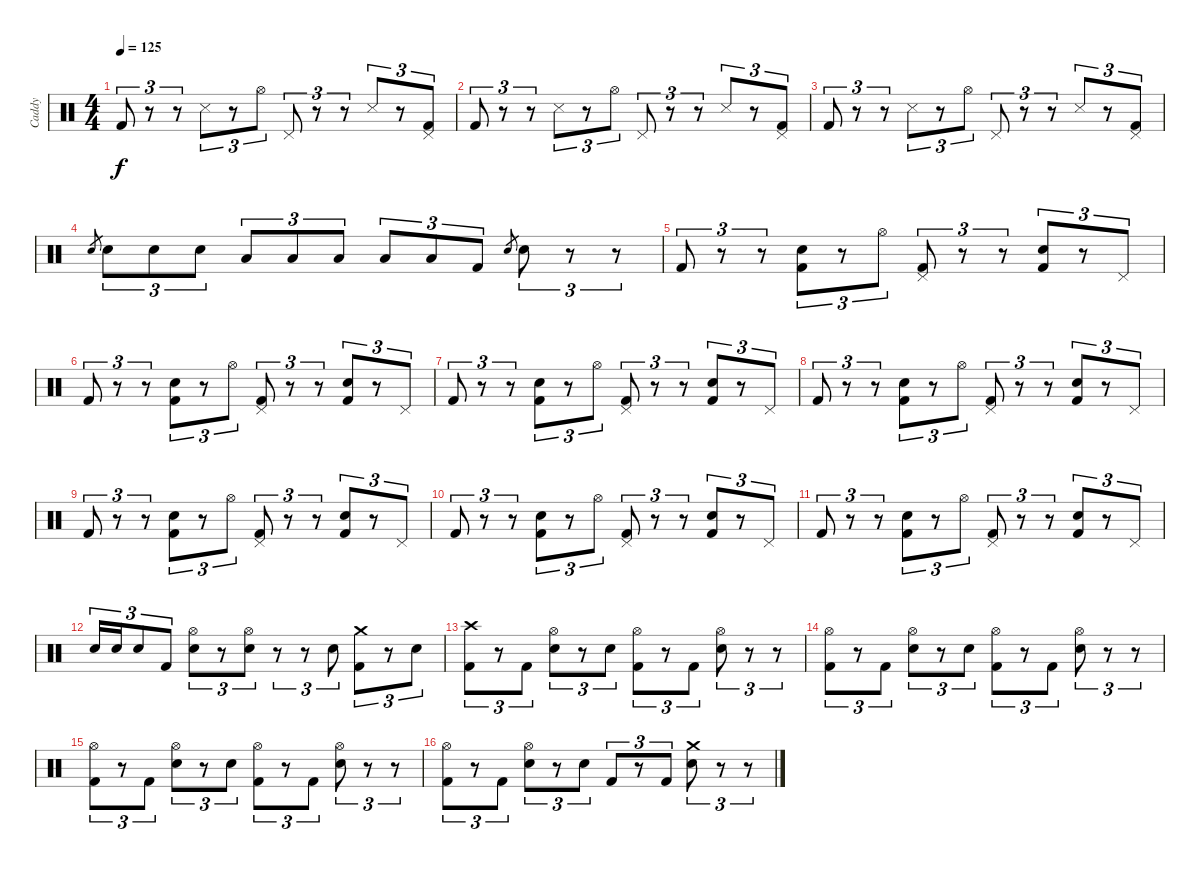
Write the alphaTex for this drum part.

\track ("Caddy" "Caddy") {instrument percussion}
\staff {score}
\articulation defaults
\ts (4 4)
\tempo 125
\clef neutral
\ks c "Kick (hit) 2".8{tu (3 2) dy f}
r.8{tu (3 2)} r.8{tu (3 2)} "Snare (side stick) 3".8{tu (3 2)} r.8{tu (3 2)} "Hi-Hat (open)".8{tu (3 2)} "Pedal Hi-Hat (hit)".8{tu (3 2)} r.8{tu (3 2)} r.8{tu (3 2)} "Snare (side stick) 3".8{tu (3 2)} r.8{tu (3 2)} ("Pedal Hi-Hat (hit)" "Kick (hit) 2").8{tu (3 2)} |
"Kick (hit) 2".8{tu (3 2)} r.8{tu (3 2)} r.8{tu (3 2)} "Snare (side stick) 3".8{tu (3 2)} r.8{tu (3 2)} "Hi-Hat (open)".8{tu (3 2)} "Pedal Hi-Hat (hit)".8{tu (3 2)} r.8{tu (3 2)} r.8{tu (3 2)} "Snare (side stick) 3".8{tu (3 2)} r.8{tu (3 2)} ("Pedal Hi-Hat (hit)" "Kick (hit) 2").8{tu (3 2)} |
"Kick (hit) 2".8{tu (3 2)} r.8{tu (3 2)} r.8{tu (3 2)} "Snare (side stick) 3".8{tu (3 2)} r.8{tu (3 2)} "Hi-Hat (open)".8{tu (3 2)} "Pedal Hi-Hat (hit)".8{tu (3 2)} r.8{tu (3 2)} r.8{tu (3 2)} "Snare (side stick) 3".8{tu (3 2)} r.8{tu (3 2)} ("Pedal Hi-Hat (hit)" "Kick (hit) 2").8{tu (3 2)} |
"Electric Snare (hit)".8{gr} "Electric Snare (hit)".8{tu (3 2)} "Electric Snare (hit)".8{tu (3 2)} "Electric Snare (hit)".8{tu (3 2)} "Low Tom (hit)".8{tu (3 2)} "Low Tom (hit)".8{tu (3 2)} "Low Tom (hit)".8{tu (3 2)} "Low Floor Tom (hit)".8{tu (3 2)} "Low Floor Tom (hit)".8{tu (3 2)} "Kick (hit) 2".8{tu (3 2)} "Electric Snare (hit)".8{gr} "Electric Snare (hit)".8{tu (3 2)} r.8{tu (3 2)} r.8{tu (3 2)} |
"Kick (hit) 2".8{tu (3 2)} r.8{tu (3 2)} r.8{tu (3 2)} ("Electric Snare (hit)" "Kick (hit) 2").8{tu (3 2)} r.8{tu (3 2)} "Hi-Hat (open)".8{tu (3 2)} ("Pedal Hi-Hat (hit)" "Kick (hit) 2").8{tu (3 2)} r.8{tu (3 2)} r.8{tu (3 2)} ("Electric Snare (hit)" "Kick (hit) 2").8{tu (3 2)} r.8{tu (3 2)} "Pedal Hi-Hat (hit)".8{tu (3 2)} |
"Kick (hit) 2".8{tu (3 2)} r.8{tu (3 2)} r.8{tu (3 2)} ("Electric Snare (hit)" "Kick (hit) 2").8{tu (3 2)} r.8{tu (3 2)} "Hi-Hat (open)".8{tu (3 2)} ("Pedal Hi-Hat (hit)" "Kick (hit) 2").8{tu (3 2)} r.8{tu (3 2)} r.8{tu (3 2)} ("Electric Snare (hit)" "Kick (hit) 2").8{tu (3 2)} r.8{tu (3 2)} "Pedal Hi-Hat (hit)".8{tu (3 2)} |
"Kick (hit) 2".8{tu (3 2)} r.8{tu (3 2)} r.8{tu (3 2)} ("Electric Snare (hit)" "Kick (hit) 2").8{tu (3 2)} r.8{tu (3 2)} "Hi-Hat (open)".8{tu (3 2)} ("Pedal Hi-Hat (hit)" "Kick (hit) 2").8{tu (3 2)} r.8{tu (3 2)} r.8{tu (3 2)} ("Electric Snare (hit)" "Kick (hit) 2").8{tu (3 2)} r.8{tu (3 2)} "Pedal Hi-Hat (hit)".8{tu (3 2)} |
"Kick (hit) 2".8{tu (3 2)} r.8{tu (3 2)} r.8{tu (3 2)} ("Electric Snare (hit)" "Kick (hit) 2").8{tu (3 2)} r.8{tu (3 2)} "Hi-Hat (open)".8{tu (3 2)} ("Pedal Hi-Hat (hit)" "Kick (hit) 2").8{tu (3 2)} r.8{tu (3 2)} r.8{tu (3 2)} ("Electric Snare (hit)" "Kick (hit) 2").8{tu (3 2)} r.8{tu (3 2)} "Pedal Hi-Hat (hit)".8{tu (3 2)} |
"Kick (hit) 2".8{tu (3 2)} r.8{tu (3 2)} r.8{tu (3 2)} ("Electric Snare (hit)" "Kick (hit) 2").8{tu (3 2)} r.8{tu (3 2)} "Hi-Hat (open)".8{tu (3 2)} ("Pedal Hi-Hat (hit)" "Kick (hit) 2").8{tu (3 2)} r.8{tu (3 2)} r.8{tu (3 2)} ("Electric Snare (hit)" "Kick (hit) 2").8{tu (3 2)} r.8{tu (3 2)} "Pedal Hi-Hat (hit)".8{tu (3 2)} |
"Kick (hit) 2".8{tu (3 2)} r.8{tu (3 2)} r.8{tu (3 2)} ("Electric Snare (hit)" "Kick (hit) 2").8{tu (3 2)} r.8{tu (3 2)} "Hi-Hat (open)".8{tu (3 2)} ("Pedal Hi-Hat (hit)" "Kick (hit) 2").8{tu (3 2)} r.8{tu (3 2)} r.8{tu (3 2)} ("Electric Snare (hit)" "Kick (hit) 2").8{tu (3 2)} r.8{tu (3 2)} "Pedal Hi-Hat (hit)".8{tu (3 2)} |
"Kick (hit) 2".8{tu (3 2)} r.8{tu (3 2)} r.8{tu (3 2)} ("Electric Snare (hit)" "Kick (hit) 2").8{tu (3 2)} r.8{tu (3 2)} "Hi-Hat (open)".8{tu (3 2)} ("Pedal Hi-Hat (hit)" "Kick (hit) 2").8{tu (3 2)} r.8{tu (3 2)} r.8{tu (3 2)} ("Electric Snare (hit)" "Kick (hit) 2").8{tu (3 2)} r.8{tu (3 2)} "Pedal Hi-Hat (hit)".8{tu (3 2)} |
"Electric Snare (hit)".16{tu (3 2)} "Electric Snare (hit)".16{tu (3 2)} "Electric Snare (hit)".8{tu (3 2)} "Kick (hit) 2".8{tu (3 2)} ("Hi-Hat (open)" "Electric Snare (hit)").8{tu (3 2)} r.8{tu (3 2)} ("Hi-Hat (open)" "Electric Snare (hit)").8{tu (3 2)} r.8{tu (3 2)} r.8{tu (3 2)} "Electric Snare (hit)".8{tu (3 2)} ("Crash medium (hit)" "Kick (hit) 2").8{tu (3 2)} r.8{tu (3 2)} "Electric Snare (hit)".8{tu (3 2)} |
("Crash high (hit)" "Kick (hit) 2").8{tu (3 2)} r.8{tu (3 2)} "Kick (hit) 2".8{tu (3 2)} ("Hi-Hat (open)" "Electric Snare (hit)").8{tu (3 2)} r.8{tu (3 2)} "Electric Snare (hit)".8{tu (3 2)} ("Hi-Hat (open)" "Kick (hit) 2").8{tu (3 2)} r.8{tu (3 2)} "Kick (hit) 2".8{tu (3 2)} ("Hi-Hat (open)" "Electric Snare (hit)").8{tu (3 2)} r.8{tu (3 2)} r.8{tu (3 2)} |
("Hi-Hat (open)" "Kick (hit) 2").8{tu (3 2)} r.8{tu (3 2)} "Kick (hit) 2".8{tu (3 2)} ("Hi-Hat (open)" "Electric Snare (hit)").8{tu (3 2)} r.8{tu (3 2)} "Electric Snare (hit)".8{tu (3 2)} ("Hi-Hat (open)" "Kick (hit) 2").8{tu (3 2)} r.8{tu (3 2)} "Kick (hit) 2".8{tu (3 2)} ("Hi-Hat (open)" "Electric Snare (hit)").8{tu (3 2)} r.8{tu (3 2)} r.8{tu (3 2)} |
("Hi-Hat (open)" "Kick (hit) 2").8{tu (3 2)} r.8{tu (3 2)} "Kick (hit) 2".8{tu (3 2)} ("Hi-Hat (open)" "Electric Snare (hit)").8{tu (3 2)} r.8{tu (3 2)} "Electric Snare (hit)".8{tu (3 2)} ("Hi-Hat (open)" "Kick (hit) 2").8{tu (3 2)} r.8{tu (3 2)} "Kick (hit) 2".8{tu (3 2)} ("Hi-Hat (open)" "Electric Snare (hit)").8{tu (3 2)} r.8{tu (3 2)} r.8{tu (3 2)} |
("Hi-Hat (open)" "Kick (hit) 2").8{tu (3 2)} r.8{tu (3 2)} "Kick (hit) 2".8{tu (3 2)} ("Hi-Hat (open)" "Electric Snare (hit)").8{tu (3 2)} r.8{tu (3 2)} "Electric Snare (hit)".8{tu (3 2)} "Kick (hit) 2".8{tu (3 2)} r.8{tu (3 2)} "Kick (hit) 2".8{tu (3 2)} ("Crash medium (hit)" "Electric Snare (hit)").8{tu (3 2)} r.8{tu (3 2)} r.8{tu (3 2)}
